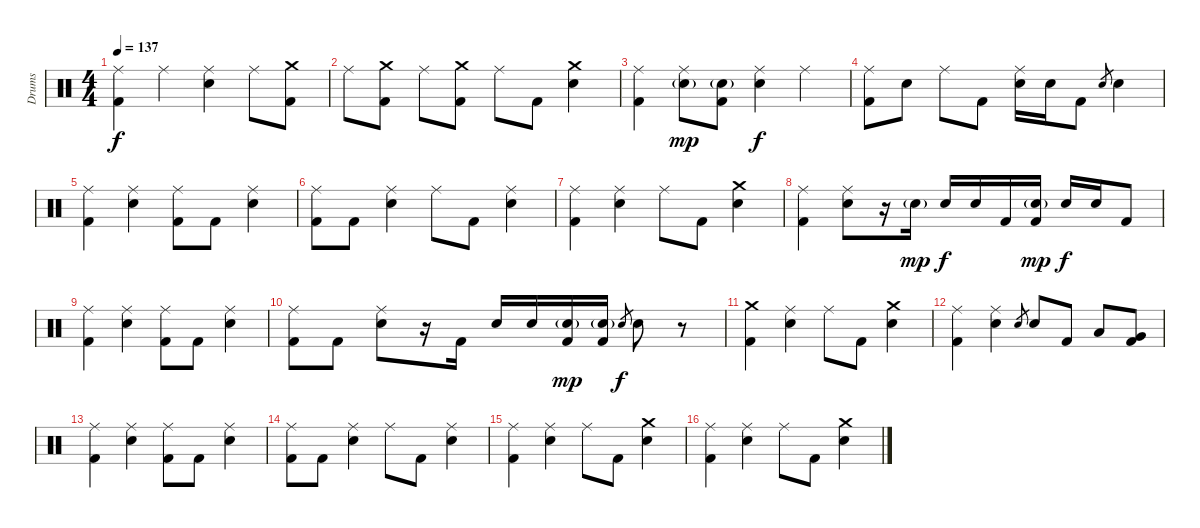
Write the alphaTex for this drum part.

\track ("Drums" "Drums") {instrument percussion}
\staff {score}
\articulation defaults
\ts (4 4)
\tempo 137
\clef neutral
\ks c
("Ride (middle)" "Kick (hit) 2").4{dy f} "Ride (middle)".4 ("Ride (middle)" "Electric Snare (hit)").4 "Ride (middle)".8 ("Crash medium (hit)" "Kick (hit) 2").8 |
"Ride (middle)".8 ("Crash medium (hit)" "Kick (hit) 2").8 "Ride (middle)".8 ("Crash medium (hit)" "Kick (hit) 2").8 "Ride (middle)".8 "Kick (hit) 2".8 ("Crash medium (hit)" "Electric Snare (hit)").4 |
("Ride (middle)" "Kick (hit) 2").4 ("Ride (middle)" "Electric Snare (hit)"{g}).8{dy mp} ("Electric Snare (hit)"{g} "Kick (hit) 2").8 ("Ride (middle)" "Electric Snare (hit)").4{dy f} "Ride (middle)".4 |
("Ride (middle)" "Kick (hit) 2").8 "Electric Snare (hit)".8 "Ride (middle)".8 "Kick (hit) 2".8 ("Ride (middle)" "Electric Snare (hit)").16 "Electric Snare (hit)".16 "Kick (hit) 2".8 "Electric Snare (hit)".8{gr} "Electric Snare (hit)".4 |
("Ride (middle)" "Kick (hit) 2").4 ("Ride (middle)" "Electric Snare (hit)").4 ("Ride (middle)" "Kick (hit) 2").8 "Kick (hit) 2".8 ("Ride (middle)" "Electric Snare (hit)").4 |
("Ride (middle)" "Kick (hit) 2").8 "Kick (hit) 2".8 ("Ride (middle)" "Electric Snare (hit)").4 "Ride (middle)".8 "Kick (hit) 2".8 ("Ride (middle)" "Electric Snare (hit)").4 |
("Ride (middle)" "Kick (hit) 2").4 ("Ride (middle)" "Electric Snare (hit)").4 "Ride (middle)".8 "Kick (hit) 2".8 ("Crash medium (hit)" "Electric Snare (hit)").4 |
("Ride (middle)" "Kick (hit) 2").4 ("Ride (middle)" "Electric Snare (hit)").8 r.16 "Electric Snare (hit)"{g}.16{dy mp} "Electric Snare (hit)".16{dy f} "Electric Snare (hit)".16 "Kick (hit) 2".16 ("Electric Snare (hit)"{g} "Kick (hit) 2").16{dy mp} "Electric Snare (hit)".16{dy f} "Electric Snare (hit)".16 "Kick (hit) 2".8 |
("Ride (middle)" "Kick (hit) 2").4 ("Ride (middle)" "Electric Snare (hit)").4 ("Ride (middle)" "Kick (hit) 2").8 "Kick (hit) 2".8 ("Ride (middle)" "Electric Snare (hit)").4 |
("Ride (middle)" "Kick (hit) 2").8 "Kick (hit) 2".8 ("Ride (middle)" "Electric Snare (hit)").8 r.16 "Kick (hit) 2".16 "Electric Snare (hit)".16 "Electric Snare (hit)".16 ("Electric Snare (hit)"{g} "Kick (hit) 2").16{dy mp} ("Electric Snare (hit)"{g} "Kick (hit) 2").16 "Electric Snare (hit)".8{gr dy f} "Electric Snare (hit)".8 r.8 |
("Crash medium (hit)" "Kick (hit) 2").4 ("Ride (middle)" "Electric Snare (hit)").4 "Ride (middle)".8 "Kick (hit) 2".8 ("Crash medium (hit)" "Electric Snare (hit)").4 |
("Ride (middle)" "Kick (hit) 2").4 ("Ride (middle)" "Electric Snare (hit)").4 "Electric Snare (hit)".8{gr} "Electric Snare (hit)".8 "Kick (hit) 2".8 "Low Tom (hit)".8 ("Very Low Tom (hit)" "Kick (hit) 2").8 |
("Ride (middle)" "Kick (hit) 2").4 ("Ride (middle)" "Electric Snare (hit)").4 ("Ride (middle)" "Kick (hit) 2").8 "Kick (hit) 2".8 ("Ride (middle)" "Electric Snare (hit)").4 |
("Ride (middle)" "Kick (hit) 2").8 "Kick (hit) 2".8 ("Ride (middle)" "Electric Snare (hit)").4 "Ride (middle)".8 "Kick (hit) 2".8 ("Ride (middle)" "Electric Snare (hit)").4 |
("Ride (middle)" "Kick (hit) 2").4 ("Ride (middle)" "Electric Snare (hit)").4 "Ride (middle)".8 "Kick (hit) 2".8 ("Crash medium (hit)" "Electric Snare (hit)").4 |
("Ride (middle)" "Kick (hit) 2").4 ("Ride (middle)" "Electric Snare (hit)").4 "Ride (middle)".8 "Kick (hit) 2".8 ("Crash medium (hit)" "Electric Snare (hit)").4
